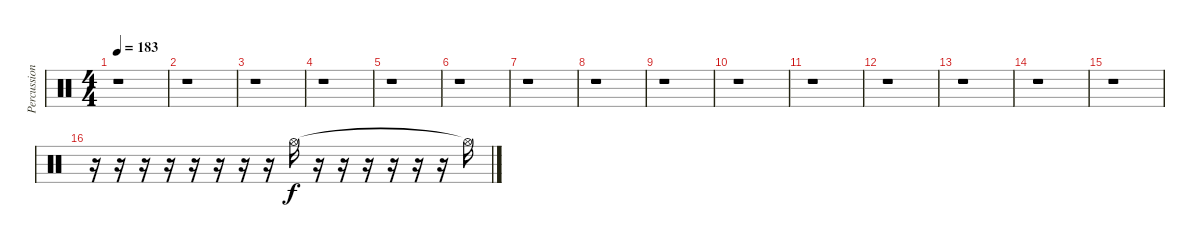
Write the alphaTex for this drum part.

\track ("Percussion" "Percussion") {instrument percussion}
\staff {score}
\articulation defaults
\ts (4 4)
\tempo 183
\clef neutral
\ks c
r.1{dy f} |
r.1 |
r.1 |
r.1 |
r.1 |
r.1 |
r.1 |
r.1 |
r.1 |
r.1 |
r.1 |
r.1 |
r.1 |
r.1 |
r.1 |
r.16 r.16 r.16 r.16 r.16 r.16 r.16 r.16 "Hi-Hat (open)".16 r.16 r.16 r.16 r.16 r.16 r.16 "Hi-Hat (open)"{t}.16
